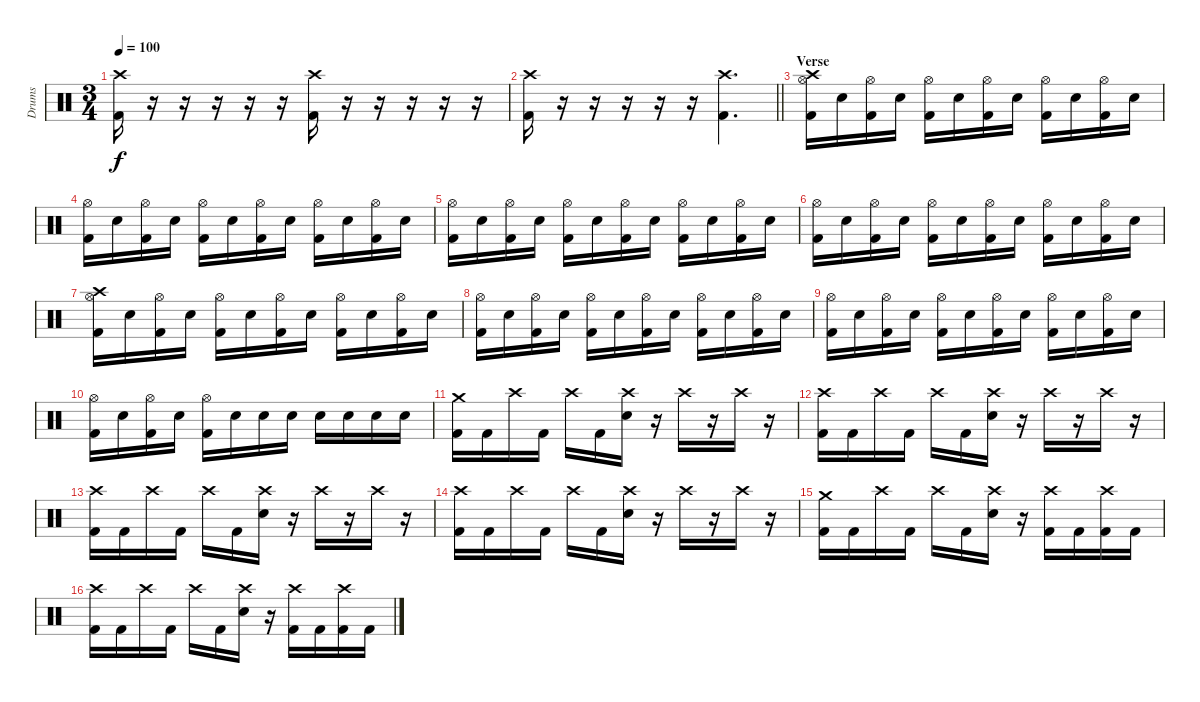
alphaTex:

\track ("Drums" "Drums") {instrument percussion}
\staff {score}
\articulation defaults
\ts (3 4)
\tempo 100
\clef neutral
\ks c
("Crash high (hit)" "Kick (hit) 2").16{dy f} r.16 r.16 r.16 r.16 r.16 ("Crash high (hit)" "Kick (hit) 2").16 r.16 r.16 r.16 r.16 r.16 |
\barLineRight lightlight
("Crash high (hit)" "Kick (hit) 2").16 r.16 r.16 r.16 r.16 r.16 ("Crash high (hit)" "Kick (hit) 2").4{d} |
\section ("" "Verse")
("Crash high (hit)" "Hi-Hat (open)" "Kick (hit) 2").16 "Electric Snare (hit)".16 ("Hi-Hat (open)" "Kick (hit) 2").16 "Electric Snare (hit)".16 ("Hi-Hat (open)" "Kick (hit) 2").16 "Electric Snare (hit)".16 ("Hi-Hat (open)" "Kick (hit) 2").16 "Electric Snare (hit)".16 ("Hi-Hat (open)" "Kick (hit) 2").16 "Electric Snare (hit)".16 ("Hi-Hat (open)" "Kick (hit) 2").16 "Electric Snare (hit)".16 |
("Hi-Hat (open)" "Kick (hit) 2").16 "Electric Snare (hit)".16 ("Hi-Hat (open)" "Kick (hit) 2").16 "Electric Snare (hit)".16 ("Hi-Hat (open)" "Kick (hit) 2").16 "Electric Snare (hit)".16 ("Hi-Hat (open)" "Kick (hit) 2").16 "Electric Snare (hit)".16 ("Hi-Hat (open)" "Kick (hit) 2").16 "Electric Snare (hit)".16 ("Hi-Hat (open)" "Kick (hit) 2").16 "Electric Snare (hit)".16 |
("Hi-Hat (open)" "Kick (hit) 2").16 "Electric Snare (hit)".16 ("Hi-Hat (open)" "Kick (hit) 2").16 "Electric Snare (hit)".16 ("Hi-Hat (open)" "Kick (hit) 2").16 "Electric Snare (hit)".16 ("Hi-Hat (open)" "Kick (hit) 2").16 "Electric Snare (hit)".16 ("Hi-Hat (open)" "Kick (hit) 2").16 "Electric Snare (hit)".16 ("Hi-Hat (open)" "Kick (hit) 2").16 "Electric Snare (hit)".16 |
("Hi-Hat (open)" "Kick (hit) 2").16 "Electric Snare (hit)".16 ("Hi-Hat (open)" "Kick (hit) 2").16 "Electric Snare (hit)".16 ("Hi-Hat (open)" "Kick (hit) 2").16 "Electric Snare (hit)".16 ("Hi-Hat (open)" "Kick (hit) 2").16 "Electric Snare (hit)".16 ("Hi-Hat (open)" "Kick (hit) 2").16 "Electric Snare (hit)".16 ("Hi-Hat (open)" "Kick (hit) 2").16 "Electric Snare (hit)".16 |
("Crash high (hit)" "Hi-Hat (open)" "Kick (hit) 2").16 "Electric Snare (hit)".16 ("Hi-Hat (open)" "Kick (hit) 2").16 "Electric Snare (hit)".16 ("Hi-Hat (open)" "Kick (hit) 2").16 "Electric Snare (hit)".16 ("Hi-Hat (open)" "Kick (hit) 2").16 "Electric Snare (hit)".16 ("Hi-Hat (open)" "Kick (hit) 2").16 "Electric Snare (hit)".16 ("Hi-Hat (open)" "Kick (hit) 2").16 "Electric Snare (hit)".16 |
("Hi-Hat (open)" "Kick (hit) 2").16 "Electric Snare (hit)".16 ("Hi-Hat (open)" "Kick (hit) 2").16 "Electric Snare (hit)".16 ("Hi-Hat (open)" "Kick (hit) 2").16 "Electric Snare (hit)".16 ("Hi-Hat (open)" "Kick (hit) 2").16 "Electric Snare (hit)".16 ("Hi-Hat (open)" "Kick (hit) 2").16 "Electric Snare (hit)".16 ("Hi-Hat (open)" "Kick (hit) 2").16 "Electric Snare (hit)".16 |
("Hi-Hat (open)" "Kick (hit) 2").16 "Electric Snare (hit)".16 ("Hi-Hat (open)" "Kick (hit) 2").16 "Electric Snare (hit)".16 ("Hi-Hat (open)" "Kick (hit) 2").16 "Electric Snare (hit)".16 ("Hi-Hat (open)" "Kick (hit) 2").16 "Electric Snare (hit)".16 ("Hi-Hat (open)" "Kick (hit) 2").16 "Electric Snare (hit)".16 ("Hi-Hat (open)" "Kick (hit) 2").16 "Electric Snare (hit)".16 |
("Hi-Hat (open)" "Kick (hit) 2").16 "Electric Snare (hit)".16 ("Hi-Hat (open)" "Kick (hit) 2").16 "Electric Snare (hit)".16 ("Hi-Hat (open)" "Kick (hit) 2").16 "Electric Snare (hit)".16 "Electric Snare (hit)".16 "Electric Snare (hit)".16 "Electric Snare (hit)".16 "Electric Snare (hit)".16 "Electric Snare (hit)".16 "Electric Snare (hit)".16 |
("Crash medium (hit)" "Kick (hit) 2").16 "Kick (hit) 2".16 "Crash high (hit)".16 "Kick (hit) 2".16 "Crash high (hit)".16 "Kick (hit) 2".16 ("Crash high (hit)" "Electric Snare (hit)").16 r.16 "Crash high (hit)".16 r.16 "Crash high (hit)".16 r.16 |
("Crash high (hit)" "Kick (hit) 2").16 "Kick (hit) 2".16 "Crash high (hit)".16 "Kick (hit) 2".16 "Crash high (hit)".16 "Kick (hit) 2".16 ("Crash high (hit)" "Electric Snare (hit)").16 r.16 "Crash high (hit)".16 r.16 "Crash high (hit)".16 r.16 |
("Crash high (hit)" "Kick (hit) 2").16 "Kick (hit) 2".16 "Crash high (hit)".16 "Kick (hit) 2".16 "Crash high (hit)".16 "Kick (hit) 2".16 ("Crash high (hit)" "Electric Snare (hit)").16 r.16 "Crash high (hit)".16 r.16 "Crash high (hit)".16 r.16 |
("Crash high (hit)" "Kick (hit) 2").16 "Kick (hit) 2".16 "Crash high (hit)".16 "Kick (hit) 2".16 "Crash high (hit)".16 "Kick (hit) 2".16 ("Crash high (hit)" "Electric Snare (hit)").16 r.16 "Crash high (hit)".16 r.16 "Crash high (hit)".16 r.16 |
("Crash medium (hit)" "Kick (hit) 2").16 "Kick (hit) 2".16 "Crash high (hit)".16 "Kick (hit) 2".16 "Crash high (hit)".16 "Kick (hit) 2".16 ("Crash high (hit)" "Electric Snare (hit)").16 r.16 ("Crash high (hit)" "Kick (hit) 2").16 "Kick (hit) 2".16 ("Crash high (hit)" "Kick (hit) 2").16 "Kick (hit) 2".16 |
("Crash high (hit)" "Kick (hit) 2").16 "Kick (hit) 2".16 "Crash high (hit)".16 "Kick (hit) 2".16 "Crash high (hit)".16 "Kick (hit) 2".16 ("Crash high (hit)" "Electric Snare (hit)").16 r.16 ("Crash high (hit)" "Kick (hit) 2").16 "Kick (hit) 2".16 ("Crash high (hit)" "Kick (hit) 2").16 "Kick (hit) 2".16
